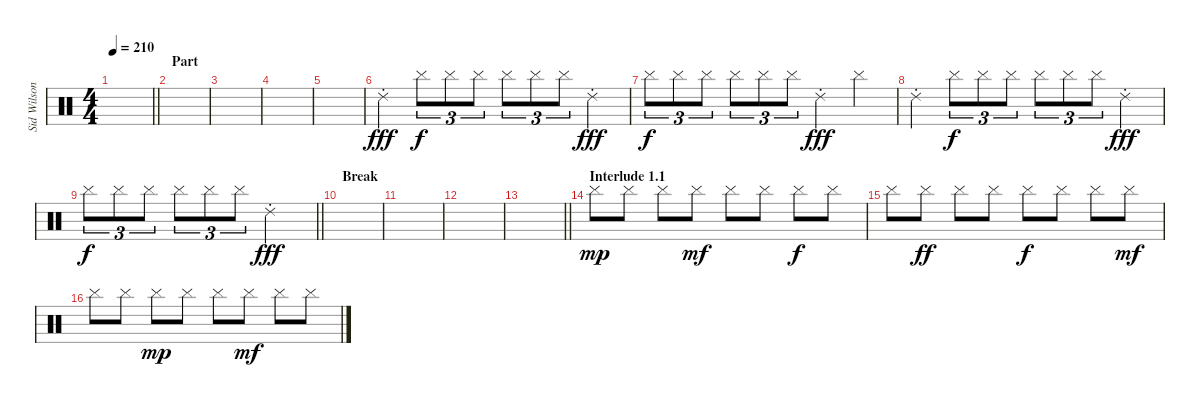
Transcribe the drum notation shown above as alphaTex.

\track ("Sid Wilson" "Sid Wilson") {instrument percussion}
\staff {score}
\articulation defaults
\ts (4 4)
\tempo 210
\clef neutral
\barLineRight lightlight
\ks c
|
\section ("" "Part")
|
|
|
|
"Ride (choke) 2".4{dy fff} "Cymbal (hit)".8{tu (3 2) dy f} "Cymbal (hit)".8{tu (3 2)} "Cymbal (hit)".8{tu (3 2)} "Cymbal (hit)".8{tu (3 2)} "Cymbal (hit)".8{tu (3 2)} "Cymbal (hit)".8{tu (3 2)} "Ride (choke) 2".4{dy fff} |
"Cymbal (hit)".8{tu (3 2) dy f} "Cymbal (hit)".8{tu (3 2)} "Cymbal (hit)".8{tu (3 2)} "Cymbal (hit)".8{tu (3 2)} "Cymbal (hit)".8{tu (3 2)} "Cymbal (hit)".8{tu (3 2)} "Ride (choke) 2".4{dy fff} "Cymbal (hit)".4 |
"Ride (choke) 2".4 "Cymbal (hit)".8{tu (3 2) dy f} "Cymbal (hit)".8{tu (3 2)} "Cymbal (hit)".8{tu (3 2)} "Cymbal (hit)".8{tu (3 2)} "Cymbal (hit)".8{tu (3 2)} "Cymbal (hit)".8{tu (3 2)} "Ride (choke) 2".4{dy fff} |
\barLineRight lightlight "Cymbal (hit)".8{tu (3 2) dy f} "Cymbal (hit)".8{tu (3 2)} "Cymbal (hit)".8{tu (3 2)} "Cymbal (hit)".8{tu (3 2)} "Cymbal (hit)".8{tu (3 2)} "Cymbal (hit)".8{tu (3 2)} "Ride (choke) 2".2{dy fff}
|
\section ("" "Break")
|
|
|
\barLineRight lightlight
|
\section ("" "Interlude 1.1")
"Cymbal (hit)".8{dy mp} "Cymbal (hit)".8 "Cymbal (hit)".8 "Cymbal (hit)".8{dy mf} "Cymbal (hit)".8 "Cymbal (hit)".8 "Cymbal (hit)".8{dy f} "Cymbal (hit)".8 |
"Cymbal (hit)".8 "Cymbal (hit)".8{dy ff} "Cymbal (hit)".8 "Cymbal (hit)".8 "Cymbal (hit)".8{dy f} "Cymbal (hit)".8 "Cymbal (hit)".8 "Cymbal (hit)".8{dy mf} |
"Cymbal (hit)".8 "Cymbal (hit)".8 "Cymbal (hit)".8{dy mp} "Cymbal (hit)".8 "Cymbal (hit)".8 "Cymbal (hit)".8{dy mf} "Cymbal (hit)".8 "Cymbal (hit)".8
